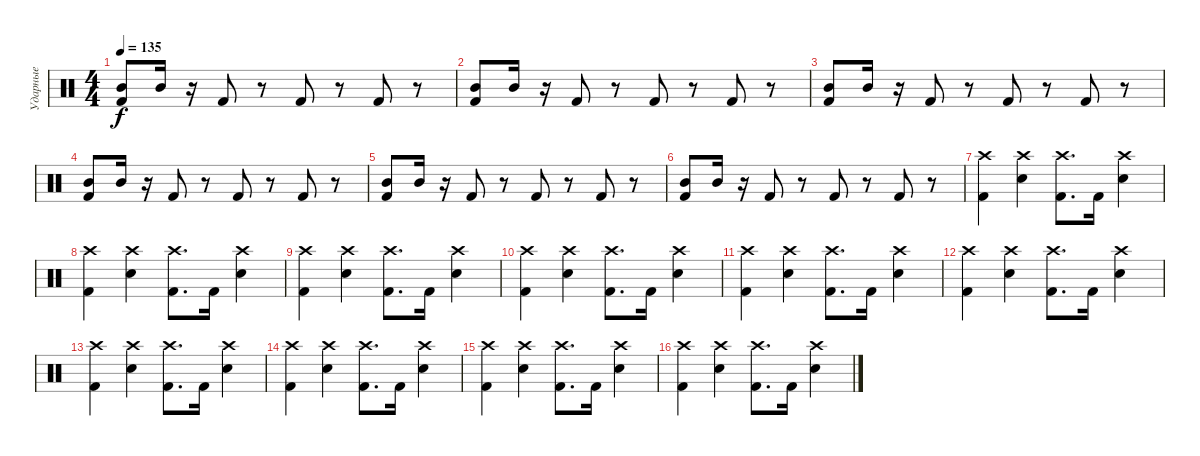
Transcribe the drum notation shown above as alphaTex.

\track ("Ударные" "Ударные") {instrument percussion}
\staff {score}
\articulation defaults
\ts (4 4)
\tempo 135
\clef neutral
\ks c
("Kick (hit) 2" "Mid Tom (hit)").8{dy f} "Mid Tom (hit)".16 r.16 "Kick (hit) 2".8 r.8 "Kick (hit) 2".8 r.8 "Kick (hit) 2".8 r.8 |
("Kick (hit) 2" "Mid Tom (hit)").8 "Mid Tom (hit)".16 r.16 "Kick (hit) 2".8 r.8 "Kick (hit) 2".8 r.8 "Kick (hit) 2".8 r.8 |
("Kick (hit) 2" "Mid Tom (hit)").8 "Mid Tom (hit)".16 r.16 "Kick (hit) 2".8 r.8 "Kick (hit) 2".8 r.8 "Kick (hit) 2".8 r.8 |
("Kick (hit) 2" "Mid Tom (hit)").8 "Mid Tom (hit)".16 r.16 "Kick (hit) 2".8 r.8 "Kick (hit) 2".8 r.8 "Kick (hit) 2".8 r.8 |
("Kick (hit) 2" "Mid Tom (hit)").8 "Mid Tom (hit)".16 r.16 "Kick (hit) 2".8 r.8 "Kick (hit) 2".8 r.8 "Kick (hit) 2".8 r.8 |
("Kick (hit) 2" "Mid Tom (hit)").8 "Mid Tom (hit)".16 r.16 "Kick (hit) 2".8 r.8 "Kick (hit) 2".8 r.8 "Kick (hit) 2".8 r.8 |
("Crash high (hit)" "Kick (hit) 2").4 ("Crash high (hit)" "Electric Snare (hit)").4 ("Crash high (hit)" "Kick (hit) 2").8{d} "Kick (hit) 2".16 ("Crash high (hit)" "Electric Snare (hit)").4 |
("Crash high (hit)" "Kick (hit) 2").4 ("Crash high (hit)" "Electric Snare (hit)").4 ("Crash high (hit)" "Kick (hit) 2").8{d} "Kick (hit) 2".16 ("Crash high (hit)" "Electric Snare (hit)").4 |
("Crash high (hit)" "Kick (hit) 2").4 ("Crash high (hit)" "Electric Snare (hit)").4 ("Crash high (hit)" "Kick (hit) 2").8{d} "Kick (hit) 2".16 ("Crash high (hit)" "Electric Snare (hit)").4 |
("Crash high (hit)" "Kick (hit) 2").4 ("Crash high (hit)" "Electric Snare (hit)").4 ("Crash high (hit)" "Kick (hit) 2").8{d} "Kick (hit) 2".16 ("Crash high (hit)" "Electric Snare (hit)").4 |
("Crash high (hit)" "Kick (hit) 2").4 ("Crash high (hit)" "Electric Snare (hit)").4 ("Crash high (hit)" "Kick (hit) 2").8{d} "Kick (hit) 2".16 ("Crash high (hit)" "Electric Snare (hit)").4 |
("Crash high (hit)" "Kick (hit) 2").4 ("Crash high (hit)" "Electric Snare (hit)").4 ("Crash high (hit)" "Kick (hit) 2").8{d} "Kick (hit) 2".16 ("Crash high (hit)" "Electric Snare (hit)").4 |
("Crash high (hit)" "Kick (hit) 2").4 ("Crash high (hit)" "Electric Snare (hit)").4 ("Crash high (hit)" "Kick (hit) 2").8{d} "Kick (hit) 2".16 ("Crash high (hit)" "Electric Snare (hit)").4 |
("Crash high (hit)" "Kick (hit) 2").4 ("Crash high (hit)" "Electric Snare (hit)").4 ("Crash high (hit)" "Kick (hit) 2").8{d} "Kick (hit) 2".16 ("Crash high (hit)" "Electric Snare (hit)").4 |
("Crash high (hit)" "Kick (hit) 2").4 ("Crash high (hit)" "Electric Snare (hit)").4 ("Crash high (hit)" "Kick (hit) 2").8{d} "Kick (hit) 2".16 ("Crash high (hit)" "Electric Snare (hit)").4 |
("Crash high (hit)" "Kick (hit) 2").4 ("Crash high (hit)" "Electric Snare (hit)").4 ("Crash high (hit)" "Kick (hit) 2").8{d} "Kick (hit) 2".16 ("Crash high (hit)" "Electric Snare (hit)").4
